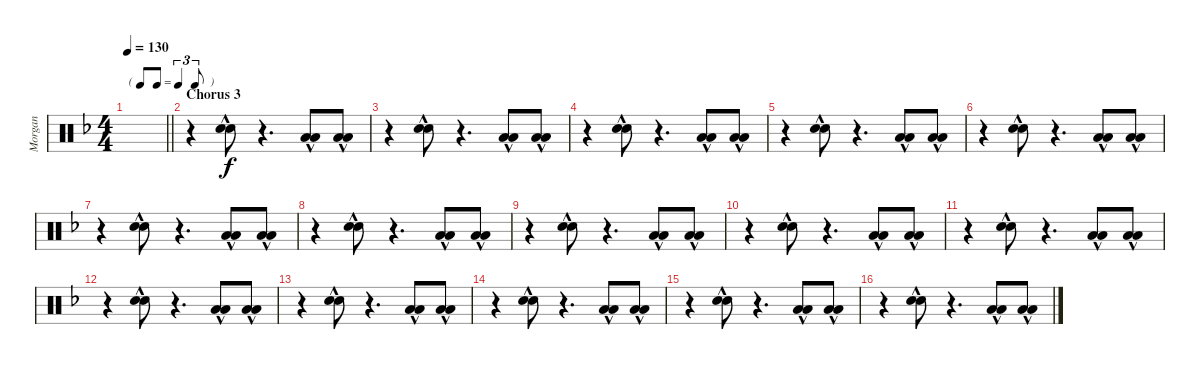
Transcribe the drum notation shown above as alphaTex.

\track ("Morgan" "Morgan") {instrument percussion}
\staff {score}
\articulation defaults
\ts (4 4)
\tf triplet8th
\tempo 130
\clef neutral
\barLineRight lightlight
\ks dminor
|
\section ("" "Chorus 3")
r.4 ("Snare (hit) 2"{hac} "Snare (hit) 2"{hac}).8 r.4{d} ("Low Tom (hit)"{hac} "Low Tom (hit)"{hac}).8 ("Low Tom (hit)"{hac} "Low Tom (hit)"{hac}).8 |
r.4 ("Snare (hit) 2"{hac} "Snare (hit) 2"{hac}).8 r.4{d} ("Low Tom (hit)"{hac} "Low Tom (hit)"{hac}).8 ("Low Tom (hit)"{hac} "Low Tom (hit)"{hac}).8 |
r.4 ("Snare (hit) 2"{hac} "Snare (hit) 2"{hac}).8 r.4{d} ("Low Tom (hit)"{hac} "Low Tom (hit)"{hac}).8 ("Low Tom (hit)"{hac} "Low Tom (hit)"{hac}).8 |
r.4 ("Snare (hit) 2"{hac} "Snare (hit) 2"{hac}).8 r.4{d} ("Low Tom (hit)"{hac} "Low Tom (hit)"{hac}).8 ("Low Tom (hit)"{hac} "Low Tom (hit)"{hac}).8 |
r.4 ("Snare (hit) 2"{hac} "Snare (hit) 2"{hac}).8 r.4{d} ("Low Tom (hit)"{hac} "Low Tom (hit)"{hac}).8 ("Low Tom (hit)"{hac} "Low Tom (hit)"{hac}).8 |
r.4 ("Snare (hit) 2"{hac} "Snare (hit) 2"{hac}).8 r.4{d} ("Low Tom (hit)"{hac} "Low Tom (hit)"{hac}).8 ("Low Tom (hit)"{hac} "Low Tom (hit)"{hac}).8 |
r.4 ("Snare (hit) 2"{hac} "Snare (hit) 2"{hac}).8 r.4{d} ("Low Tom (hit)"{hac} "Low Tom (hit)"{hac}).8 ("Low Tom (hit)"{hac} "Low Tom (hit)"{hac}).8 |
r.4 ("Snare (hit) 2"{hac} "Snare (hit) 2"{hac}).8 r.4{d} ("Low Tom (hit)"{hac} "Low Tom (hit)"{hac}).8 ("Low Tom (hit)"{hac} "Low Tom (hit)"{hac}).8 |
r.4 ("Snare (hit) 2"{hac} "Snare (hit) 2"{hac}).8 r.4{d} ("Low Tom (hit)"{hac} "Low Tom (hit)"{hac}).8 ("Low Tom (hit)"{hac} "Low Tom (hit)"{hac}).8 |
r.4 ("Snare (hit) 2"{hac} "Snare (hit) 2"{hac}).8 r.4{d} ("Low Tom (hit)"{hac} "Low Tom (hit)"{hac}).8 ("Low Tom (hit)"{hac} "Low Tom (hit)"{hac}).8 |
r.4 ("Snare (hit) 2"{hac} "Snare (hit) 2"{hac}).8 r.4{d} ("Low Tom (hit)"{hac} "Low Tom (hit)"{hac}).8 ("Low Tom (hit)"{hac} "Low Tom (hit)"{hac}).8 |
r.4 ("Snare (hit) 2"{hac} "Snare (hit) 2"{hac}).8 r.4{d} ("Low Tom (hit)"{hac} "Low Tom (hit)"{hac}).8 ("Low Tom (hit)"{hac} "Low Tom (hit)"{hac}).8 |
r.4 ("Snare (hit) 2"{hac} "Snare (hit) 2"{hac}).8 r.4{d} ("Low Tom (hit)"{hac} "Low Tom (hit)"{hac}).8 ("Low Tom (hit)"{hac} "Low Tom (hit)"{hac}).8 |
r.4 ("Snare (hit) 2"{hac} "Snare (hit) 2"{hac}).8 r.4{d} ("Low Tom (hit)"{hac} "Low Tom (hit)"{hac}).8 ("Low Tom (hit)"{hac} "Low Tom (hit)"{hac}).8 |
r.4 ("Snare (hit) 2"{hac} "Snare (hit) 2"{hac}).8 r.4{d} ("Low Tom (hit)"{hac} "Low Tom (hit)"{hac}).8 ("Low Tom (hit)"{hac} "Low Tom (hit)"{hac}).8
